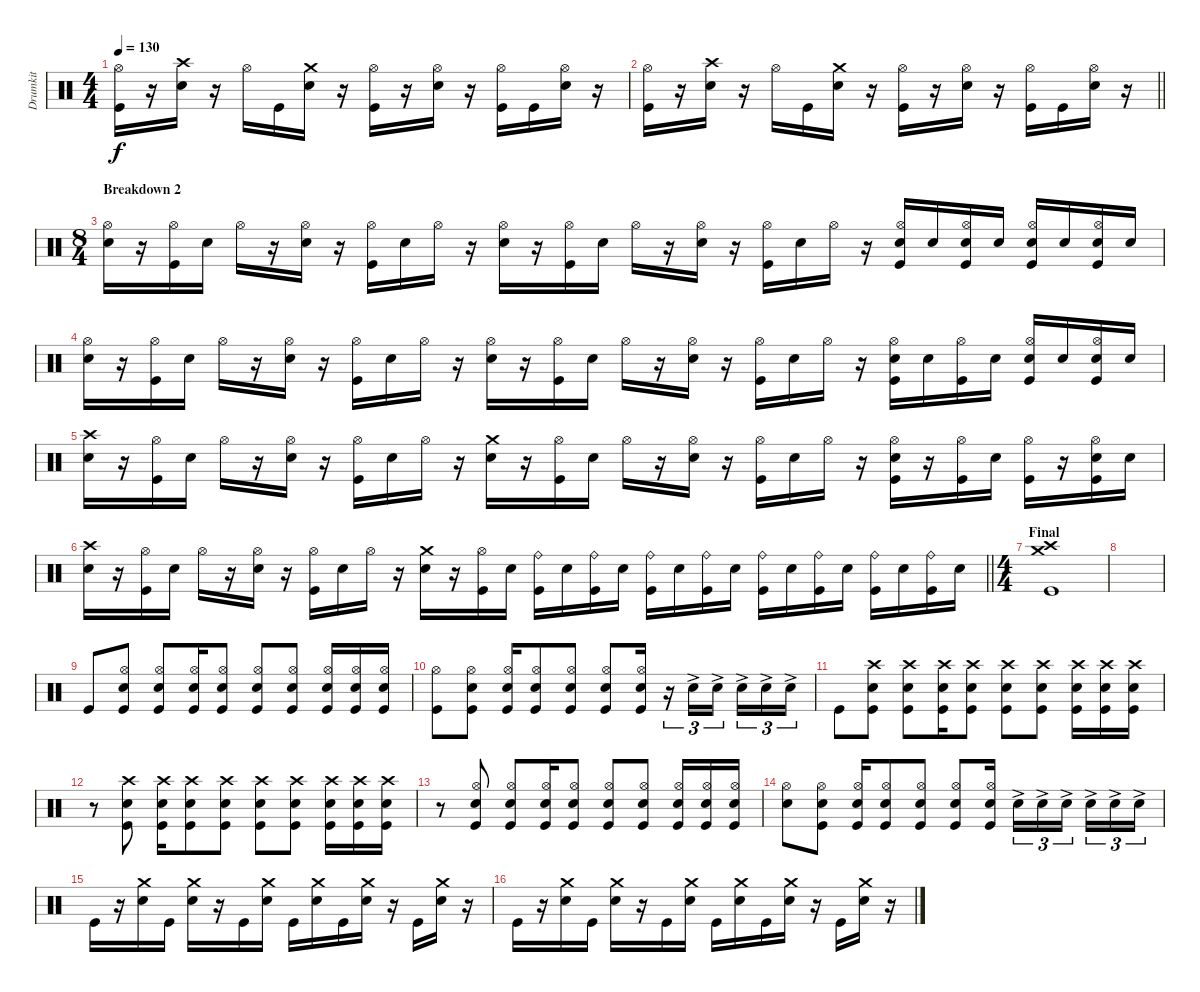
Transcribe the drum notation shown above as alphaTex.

\track ("Drumkit" "Drumkit") {instrument percussion}
\staff {score}
\articulation defaults
\ts (4 4)
\tempo 130
\clef neutral
\ks c
("Kick (hit)" "Hi-Hat (open)").16{dy f} r.16 ("Snare (hit) 2" "Crash high (hit)").16 r.16 "Hi-Hat (open)".16 "Kick (hit)".16 ("Snare (hit) 2" "Crash medium (hit)").16 r.16 ("Kick (hit)" "Hi-Hat (open)").16 r.16 ("Snare (hit) 2" "Hi-Hat (open)").16 r.16 ("Kick (hit)" "Hi-Hat (open)").16 "Kick (hit)".16 ("Snare (hit) 2" "Hi-Hat (open)").16 r.16 |
\barLineRight lightlight
("Kick (hit)" "Hi-Hat (open)").16 r.16 ("Snare (hit) 2" "Crash high (hit)").16 r.16 "Hi-Hat (open)".16 "Kick (hit)".16 ("Snare (hit) 2" "Crash medium (hit)").16 r.16 ("Kick (hit)" "Hi-Hat (open)").16 r.16 ("Snare (hit) 2" "Hi-Hat (open)").16 r.16 ("Kick (hit)" "Hi-Hat (open)").16 "Kick (hit)".16 ("Snare (hit) 2" "Hi-Hat (open)").16 r.16 |
\ts (8 4)
\section ("" "Breakdown 2")
("Snare (hit) 2" "Hi-Hat (open)").16 r.16 ("Hi-Hat (open)" "Kick (hit)").16 "Snare (hit) 2".16 "Hi-Hat (open)".16 r.16 ("Snare (hit) 2" "Hi-Hat (open)").16 r.16 ("Hi-Hat (open)" "Kick (hit)").16 "Snare (hit) 2".16 "Hi-Hat (open)".16 r.16 ("Snare (hit) 2" "Hi-Hat (open)").16 r.16 ("Hi-Hat (open)" "Kick (hit)").16 "Snare (hit) 2".16 "Hi-Hat (open)".16 r.16 ("Snare (hit) 2" "Hi-Hat (open)").16 r.16 ("Hi-Hat (open)" "Kick (hit)").16 "Snare (hit) 2".16 "Hi-Hat (open)".16 r.16 ("Snare (hit) 2" "Hi-Hat (open)" "Kick (hit)").16 "Snare (hit) 2".16 ("Snare (hit) 2" "Hi-Hat (open)" "Kick (hit)").16 "Snare (hit) 2".16 ("Snare (hit) 2" "Hi-Hat (open)" "Kick (hit)").16 "Snare (hit) 2".16 ("Snare (hit) 2" "Hi-Hat (open)" "Kick (hit)").16 "Snare (hit) 2".16 |
("Snare (hit) 2" "Hi-Hat (open)").16 r.16 ("Hi-Hat (open)" "Kick (hit)").16 "Snare (hit) 2".16 "Hi-Hat (open)".16 r.16 ("Snare (hit) 2" "Hi-Hat (open)").16 r.16 ("Hi-Hat (open)" "Kick (hit)").16 "Snare (hit) 2".16 "Hi-Hat (open)".16 r.16 ("Snare (hit) 2" "Hi-Hat (open)").16 r.16 ("Hi-Hat (open)" "Kick (hit)").16 "Snare (hit) 2".16 "Hi-Hat (open)".16 r.16 ("Snare (hit) 2" "Hi-Hat (open)").16 r.16 ("Hi-Hat (open)" "Kick (hit)").16 "Snare (hit) 2".16 "Hi-Hat (open)".16 r.16 ("Snare (hit) 2" "Hi-Hat (open)" "Kick (hit)").16 "Snare (hit) 2".16 ("Hi-Hat (open)" "Kick (hit)").16 "Snare (hit) 2".16 ("Snare (hit) 2" "Hi-Hat (open)" "Kick (hit)").16 "Snare (hit) 2".16 ("Snare (hit) 2" "Hi-Hat (open)" "Kick (hit)").16 "Snare (hit) 2".16 |
("Snare (hit) 2" "Crash high (hit)").16 r.16 ("Hi-Hat (open)" "Kick (hit)").16 "Snare (hit) 2".16 "Hi-Hat (open)".16 r.16 ("Snare (hit) 2" "Hi-Hat (open)").16 r.16 ("Hi-Hat (open)" "Kick (hit)").16 "Snare (hit) 2".16 "Hi-Hat (open)".16 r.16 ("Snare (hit) 2" "Crash medium (hit)").16 r.16 ("Hi-Hat (open)" "Kick (hit)").16 "Snare (hit) 2".16 "Hi-Hat (open)".16 r.16 ("Snare (hit) 2" "Hi-Hat (open)").16 r.16 ("Hi-Hat (open)" "Kick (hit)").16 "Snare (hit) 2".16 "Hi-Hat (open)".16 r.16 ("Snare (hit) 2" "Hi-Hat (open)" "Kick (hit)").16 r.16 ("Hi-Hat (open)" "Kick (hit)").16 "Snare (hit) 2".16 ("Hi-Hat (open)" "Kick (hit)").16 r.16 ("Snare (hit) 2" "Hi-Hat (open)" "Kick (hit)").16 "Snare (hit) 2".16 |
\barLineRight lightlight
("Snare (hit) 2" "Crash high (hit)").16 r.16 ("Hi-Hat (open)" "Kick (hit)").16 "Snare (hit) 2".16 "Hi-Hat (open)".16 r.16 ("Snare (hit) 2" "Hi-Hat (open)").16 r.16 ("Hi-Hat (open)" "Kick (hit)").16 "Snare (hit) 2".16 "Hi-Hat (open)".16 r.16 ("Snare (hit) 2" "Crash medium (hit)").16 r.16 ("Hi-Hat (open)" "Kick (hit)").16 "Snare (hit) 2".16 ("Ride (bell)" "Kick (hit)").16 "Snare (hit) 2".16 ("Ride (bell)" "Kick (hit)").16 "Snare (hit) 2".16 ("Ride (bell)" "Kick (hit)").16 "Snare (hit) 2".16 ("Ride (bell)" "Kick (hit)").16 "Snare (hit) 2".16 ("Ride (bell)" "Kick (hit)").16 "Snare (hit) 2".16 ("Ride (bell)" "Kick (hit)").16 "Snare (hit) 2".16 ("Ride (bell)" "Kick (hit)").16 "Snare (hit) 2".16 ("Ride (bell)" "Kick (hit)").16 "Snare (hit) 2".16 |
\ts (4 4)
\section ("" "Final")
("Crash medium (hit)" "Crash high (hit)" "Kick (hit)").1 |
|
"Kick (hit)".8 ("Snare (hit) 2" "Kick (hit)" "Hi-Hat (open)").8 ("Snare (hit) 2" "Kick (hit)" "Hi-Hat (open)").8 ("Snare (hit) 2" "Kick (hit)" "Hi-Hat (open)").16 ("Snare (hit) 2" "Kick (hit)" "Hi-Hat (open)").8 ("Snare (hit) 2" "Kick (hit)" "Hi-Hat (open)").8 ("Snare (hit) 2" "Kick (hit)" "Hi-Hat (open)").8 ("Snare (hit) 2" "Kick (hit)" "Hi-Hat (open)").16 ("Snare (hit) 2" "Kick (hit)" "Hi-Hat (open)").16 ("Snare (hit) 2" "Kick (hit)" "Hi-Hat (open)").16 |
("Kick (hit)" "Hi-Hat (open)").8 ("Snare (hit) 2" "Kick (hit)" "Hi-Hat (open)").8 ("Snare (hit) 2" "Kick (hit)" "Hi-Hat (open)").16 ("Snare (hit) 2" "Kick (hit)" "Hi-Hat (open)").8 ("Snare (hit) 2" "Kick (hit)" "Hi-Hat (open)").8 ("Snare (hit) 2" "Kick (hit)" "Hi-Hat (open)").8 ("Snare (hit) 2" "Kick (hit)" "Hi-Hat (open)").16 r.16{tu (3 2)} "Snare (hit) 2"{ac}.16{tu (3 2)} "Snare (hit) 2"{ac}.16{tu (3 2) beam splitsecondary} "Snare (hit) 2"{ac}.16{tu (3 2)} "Snare (hit) 2"{ac}.16{tu (3 2)} "Snare (hit) 2"{ac}.16{tu (3 2)} |
"Kick (hit)".8 ("Snare (hit) 2" "Kick (hit)" "Crash high (hit)").8 ("Snare (hit) 2" "Kick (hit)" "Crash high (hit)").8 ("Snare (hit) 2" "Kick (hit)" "Crash high (hit)").16 ("Snare (hit) 2" "Kick (hit)" "Crash high (hit)").8 ("Snare (hit) 2" "Kick (hit)" "Crash high (hit)").8 ("Snare (hit) 2" "Kick (hit)" "Crash high (hit)").8 ("Snare (hit) 2" "Kick (hit)" "Crash high (hit)").16 ("Snare (hit) 2" "Kick (hit)" "Crash high (hit)").16 ("Snare (hit) 2" "Kick (hit)" "Crash high (hit)").16 |
r.8 ("Snare (hit) 2" "Kick (hit)" "Crash high (hit)").8 ("Snare (hit) 2" "Kick (hit)" "Crash high (hit)").16 ("Snare (hit) 2" "Kick (hit)" "Crash high (hit)").8 ("Snare (hit) 2" "Kick (hit)" "Crash high (hit)").8 ("Snare (hit) 2" "Kick (hit)" "Crash high (hit)").8 ("Snare (hit) 2" "Kick (hit)" "Crash high (hit)").8 ("Snare (hit) 2" "Crash high (hit)" "Kick (hit)").16 ("Snare (hit) 2" "Crash high (hit)" "Kick (hit)").16 ("Snare (hit) 2" "Crash high (hit)" "Kick (hit)").16 |
r.8 ("Snare (hit) 2" "Kick (hit)" "Hi-Hat (open)").8 ("Snare (hit) 2" "Kick (hit)" "Hi-Hat (open)").8 ("Snare (hit) 2" "Kick (hit)" "Hi-Hat (open)").16 ("Snare (hit) 2" "Kick (hit)" "Hi-Hat (open)").8 ("Snare (hit) 2" "Kick (hit)" "Hi-Hat (open)").8 ("Snare (hit) 2" "Kick (hit)" "Hi-Hat (open)").8 ("Snare (hit) 2" "Kick (hit)" "Hi-Hat (open)").16 ("Snare (hit) 2" "Kick (hit)" "Hi-Hat (open)").16 ("Snare (hit) 2" "Kick (hit)" "Hi-Hat (open)").16 |
("Snare (hit) 2" "Hi-Hat (open)").8 ("Snare (hit) 2" "Kick (hit)" "Hi-Hat (open)").8 ("Snare (hit) 2" "Kick (hit)" "Hi-Hat (open)").16 ("Snare (hit) 2" "Kick (hit)" "Hi-Hat (open)").8 ("Snare (hit) 2" "Kick (hit)" "Hi-Hat (open)").8 ("Snare (hit) 2" "Kick (hit)" "Hi-Hat (open)").8 ("Snare (hit) 2" "Kick (hit)" "Hi-Hat (open)").16 "Snare (hit) 2"{ac}.16{tu (3 2)} "Snare (hit) 2"{ac}.16{tu (3 2)} "Snare (hit) 2"{ac}.16{tu (3 2) beam splitsecondary} "Snare (hit) 2"{ac}.16{tu (3 2)} "Snare (hit) 2"{ac}.16{tu (3 2)} "Snare (hit) 2"{ac}.16{tu (3 2)} |
"Kick (hit)".16 r.16 ("Snare (hit) 2" "Crash medium (hit)").16 "Kick (hit)".16 ("Snare (hit) 2" "Crash medium (hit)").16 r.16 "Kick (hit)".16 ("Snare (hit) 2" "Crash medium (hit)").16 "Kick (hit)".16 ("Snare (hit) 2" "Crash medium (hit)").16 "Kick (hit)".16 ("Snare (hit) 2" "Crash medium (hit)").16 r.16 "Kick (hit)".16 ("Snare (hit) 2" "Crash medium (hit)").16 r.16 |
"Kick (hit)".16 r.16 ("Snare (hit) 2" "Crash medium (hit)").16 "Kick (hit)".16 ("Snare (hit) 2" "Crash medium (hit)").16 r.16 "Kick (hit)".16 ("Snare (hit) 2" "Crash medium (hit)").16 "Kick (hit)".16 ("Snare (hit) 2" "Crash medium (hit)").16 "Kick (hit)".16 ("Snare (hit) 2" "Crash medium (hit)").16 r.16 "Kick (hit)".16 ("Snare (hit) 2" "Crash medium (hit)").16 r.16
